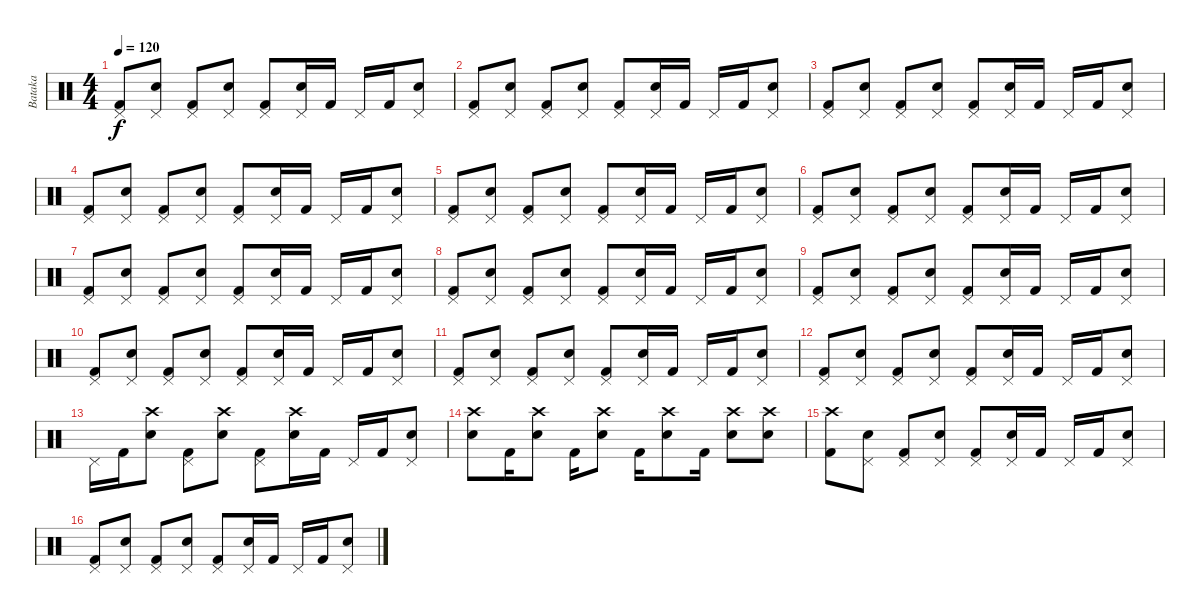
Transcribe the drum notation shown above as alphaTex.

\track ("Bataka" "Bataka") {instrument percussion}
\staff {score}
\articulation defaults
\ts (4 4)
\tempo 120
\clef neutral
\ks c
("Pedal Hi-Hat (hit)" "Kick (hit) 2").8{dy f} ("Pedal Hi-Hat (hit)" "Snare (hit) 2").8 ("Pedal Hi-Hat (hit)" "Kick (hit) 2").8 ("Pedal Hi-Hat (hit)" "Snare (hit) 2").8 ("Pedal Hi-Hat (hit)" "Kick (hit) 2").8 ("Pedal Hi-Hat (hit)" "Snare (hit) 2").16 "Kick (hit) 2".16 "Pedal Hi-Hat (hit)".16 "Kick (hit) 2".16 ("Pedal Hi-Hat (hit)" "Snare (hit) 2").8 |
("Pedal Hi-Hat (hit)" "Kick (hit) 2").8 ("Pedal Hi-Hat (hit)" "Snare (hit) 2").8 ("Pedal Hi-Hat (hit)" "Kick (hit) 2").8 ("Pedal Hi-Hat (hit)" "Snare (hit) 2").8 ("Pedal Hi-Hat (hit)" "Kick (hit) 2").8 ("Pedal Hi-Hat (hit)" "Snare (hit) 2").16 "Kick (hit) 2".16 "Pedal Hi-Hat (hit)".16 "Kick (hit) 2".16 ("Pedal Hi-Hat (hit)" "Snare (hit) 2").8 |
("Pedal Hi-Hat (hit)" "Kick (hit) 2").8 ("Pedal Hi-Hat (hit)" "Snare (hit) 2").8 ("Pedal Hi-Hat (hit)" "Kick (hit) 2").8 ("Pedal Hi-Hat (hit)" "Snare (hit) 2").8 ("Pedal Hi-Hat (hit)" "Kick (hit) 2").8 ("Pedal Hi-Hat (hit)" "Snare (hit) 2").16 "Kick (hit) 2".16 "Pedal Hi-Hat (hit)".16 "Kick (hit) 2".16 ("Pedal Hi-Hat (hit)" "Snare (hit) 2").8 |
("Pedal Hi-Hat (hit)" "Kick (hit) 2").8 ("Pedal Hi-Hat (hit)" "Snare (hit) 2").8 ("Pedal Hi-Hat (hit)" "Kick (hit) 2").8 ("Pedal Hi-Hat (hit)" "Snare (hit) 2").8 ("Pedal Hi-Hat (hit)" "Kick (hit) 2").8 ("Pedal Hi-Hat (hit)" "Snare (hit) 2").16 "Kick (hit) 2".16 "Pedal Hi-Hat (hit)".16 "Kick (hit) 2".16 ("Pedal Hi-Hat (hit)" "Snare (hit) 2").8 |
("Pedal Hi-Hat (hit)" "Kick (hit) 2").8 ("Pedal Hi-Hat (hit)" "Snare (hit) 2").8 ("Pedal Hi-Hat (hit)" "Kick (hit) 2").8 ("Pedal Hi-Hat (hit)" "Snare (hit) 2").8 ("Pedal Hi-Hat (hit)" "Kick (hit) 2").8 ("Pedal Hi-Hat (hit)" "Snare (hit) 2").16 "Kick (hit) 2".16 "Pedal Hi-Hat (hit)".16 "Kick (hit) 2".16 ("Pedal Hi-Hat (hit)" "Snare (hit) 2").8 |
("Pedal Hi-Hat (hit)" "Kick (hit) 2").8 ("Pedal Hi-Hat (hit)" "Snare (hit) 2").8 ("Pedal Hi-Hat (hit)" "Kick (hit) 2").8 ("Pedal Hi-Hat (hit)" "Snare (hit) 2").8 ("Pedal Hi-Hat (hit)" "Kick (hit) 2").8 ("Pedal Hi-Hat (hit)" "Snare (hit) 2").16 "Kick (hit) 2".16 "Pedal Hi-Hat (hit)".16 "Kick (hit) 2".16 ("Pedal Hi-Hat (hit)" "Snare (hit) 2").8 |
("Pedal Hi-Hat (hit)" "Kick (hit) 2").8 ("Pedal Hi-Hat (hit)" "Snare (hit) 2").8 ("Pedal Hi-Hat (hit)" "Kick (hit) 2").8 ("Pedal Hi-Hat (hit)" "Snare (hit) 2").8 ("Pedal Hi-Hat (hit)" "Kick (hit) 2").8 ("Pedal Hi-Hat (hit)" "Snare (hit) 2").16 "Kick (hit) 2".16 "Pedal Hi-Hat (hit)".16 "Kick (hit) 2".16 ("Pedal Hi-Hat (hit)" "Snare (hit) 2").8 |
("Pedal Hi-Hat (hit)" "Kick (hit) 2").8 ("Pedal Hi-Hat (hit)" "Snare (hit) 2").8 ("Pedal Hi-Hat (hit)" "Kick (hit) 2").8 ("Pedal Hi-Hat (hit)" "Snare (hit) 2").8 ("Pedal Hi-Hat (hit)" "Kick (hit) 2").8 ("Pedal Hi-Hat (hit)" "Snare (hit) 2").16 "Kick (hit) 2".16 "Pedal Hi-Hat (hit)".16 "Kick (hit) 2".16 ("Pedal Hi-Hat (hit)" "Snare (hit) 2").8 |
("Pedal Hi-Hat (hit)" "Kick (hit) 2").8 ("Pedal Hi-Hat (hit)" "Snare (hit) 2").8 ("Pedal Hi-Hat (hit)" "Kick (hit) 2").8 ("Pedal Hi-Hat (hit)" "Snare (hit) 2").8 ("Pedal Hi-Hat (hit)" "Kick (hit) 2").8 ("Pedal Hi-Hat (hit)" "Snare (hit) 2").16 "Kick (hit) 2".16 "Pedal Hi-Hat (hit)".16 "Kick (hit) 2".16 ("Pedal Hi-Hat (hit)" "Snare (hit) 2").8 |
("Pedal Hi-Hat (hit)" "Kick (hit) 2").8 ("Pedal Hi-Hat (hit)" "Snare (hit) 2").8 ("Pedal Hi-Hat (hit)" "Kick (hit) 2").8 ("Pedal Hi-Hat (hit)" "Snare (hit) 2").8 ("Pedal Hi-Hat (hit)" "Kick (hit) 2").8 ("Pedal Hi-Hat (hit)" "Snare (hit) 2").16 "Kick (hit) 2".16 "Pedal Hi-Hat (hit)".16 "Kick (hit) 2".16 ("Pedal Hi-Hat (hit)" "Snare (hit) 2").8 |
("Pedal Hi-Hat (hit)" "Kick (hit) 2").8 ("Pedal Hi-Hat (hit)" "Snare (hit) 2").8 ("Pedal Hi-Hat (hit)" "Kick (hit) 2").8 ("Pedal Hi-Hat (hit)" "Snare (hit) 2").8 ("Pedal Hi-Hat (hit)" "Kick (hit) 2").8 ("Pedal Hi-Hat (hit)" "Snare (hit) 2").16 "Kick (hit) 2".16 "Pedal Hi-Hat (hit)".16 "Kick (hit) 2".16 ("Pedal Hi-Hat (hit)" "Snare (hit) 2").8 |
("Pedal Hi-Hat (hit)" "Kick (hit) 2").8 ("Pedal Hi-Hat (hit)" "Snare (hit) 2").8 ("Pedal Hi-Hat (hit)" "Kick (hit) 2").8 ("Pedal Hi-Hat (hit)" "Snare (hit) 2").8 ("Pedal Hi-Hat (hit)" "Kick (hit) 2").8 ("Pedal Hi-Hat (hit)" "Snare (hit) 2").16 "Kick (hit) 2".16 "Pedal Hi-Hat (hit)".16 "Kick (hit) 2".16 ("Pedal Hi-Hat (hit)" "Snare (hit) 2").8 |
"Pedal Hi-Hat (hit)".16 "Kick (hit) 2".16 ("Crash high (hit)" "Snare (hit) 2").8 ("Pedal Hi-Hat (hit)" "Kick (hit) 2").8 ("Crash high (hit)" "Snare (hit) 2").8 ("Pedal Hi-Hat (hit)" "Kick (hit) 2").8 ("Crash high (hit)" "Snare (hit) 2").16 "Kick (hit) 2".16 "Pedal Hi-Hat (hit)".16 "Kick (hit) 2".16 ("Pedal Hi-Hat (hit)" "Snare (hit) 2").8 |
("Crash high (hit)" "Snare (hit) 2").8 "Kick (hit) 2".16 ("Crash high (hit)" "Snare (hit) 2").8 "Kick (hit) 2".16 ("Crash high (hit)" "Snare (hit) 2").8 "Kick (hit) 2".16 ("Crash high (hit)" "Snare (hit) 2").8 "Kick (hit) 2".16 ("Crash high (hit)" "Snare (hit) 2").8 ("Crash high (hit)" "Snare (hit) 2").8 |
("Crash high (hit)" "Kick (hit) 2").8 ("Pedal Hi-Hat (hit)" "Snare (hit) 2").8 ("Pedal Hi-Hat (hit)" "Kick (hit) 2").8 ("Pedal Hi-Hat (hit)" "Snare (hit) 2").8 ("Pedal Hi-Hat (hit)" "Kick (hit) 2").8 ("Pedal Hi-Hat (hit)" "Snare (hit) 2").16 "Kick (hit) 2".16 "Pedal Hi-Hat (hit)".16 "Kick (hit) 2".16 ("Pedal Hi-Hat (hit)" "Snare (hit) 2").8 |
("Pedal Hi-Hat (hit)" "Kick (hit) 2").8 ("Pedal Hi-Hat (hit)" "Snare (hit) 2").8 ("Pedal Hi-Hat (hit)" "Kick (hit) 2").8 ("Pedal Hi-Hat (hit)" "Snare (hit) 2").8 ("Pedal Hi-Hat (hit)" "Kick (hit) 2").8 ("Pedal Hi-Hat (hit)" "Snare (hit) 2").16 "Kick (hit) 2".16 "Pedal Hi-Hat (hit)".16 "Kick (hit) 2".16 ("Pedal Hi-Hat (hit)" "Snare (hit) 2").8
